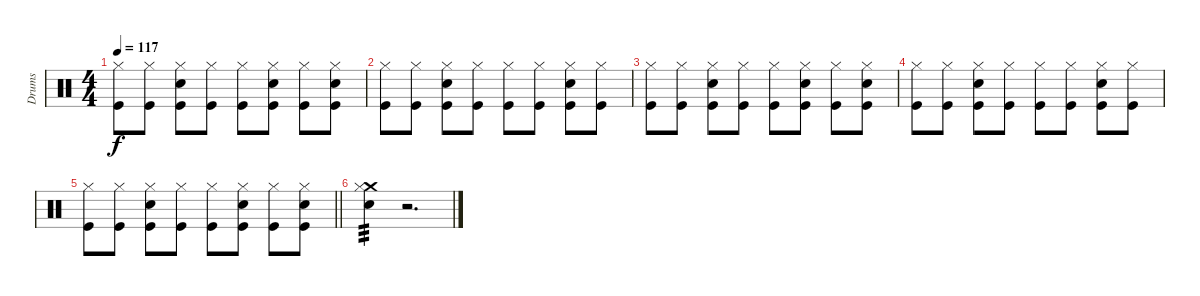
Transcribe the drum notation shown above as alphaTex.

\track ("Drums" "Drums") {instrument percussion}
\staff {score}
\articulation defaults
\ts (4 4)
\tempo 117
\clef neutral
\ks c
("Hi-Hat (closed)" "Kick (hit)").8{dy f} ("Hi-Hat (closed)" "Kick (hit)").8 ("Hi-Hat (closed)" "Electric Snare (hit)" "Kick (hit)").8 ("Hi-Hat (closed)" "Kick (hit)").8 ("Hi-Hat (closed)" "Kick (hit)").8 ("Hi-Hat (closed)" "Electric Snare (hit)" "Kick (hit)").8 ("Hi-Hat (closed)" "Kick (hit)").8 ("Hi-Hat (closed)" "Electric Snare (hit)" "Kick (hit)").8 |
("Hi-Hat (closed)" "Kick (hit)").8 ("Hi-Hat (closed)" "Kick (hit)").8 ("Hi-Hat (closed)" "Electric Snare (hit)" "Kick (hit)").8 ("Hi-Hat (closed)" "Kick (hit)").8 ("Hi-Hat (closed)" "Kick (hit)").8 ("Hi-Hat (closed)" "Kick (hit)").8 ("Hi-Hat (closed)" "Electric Snare (hit)" "Kick (hit)").8 ("Hi-Hat (closed)" "Kick (hit)").8 |
("Hi-Hat (closed)" "Kick (hit)").8 ("Hi-Hat (closed)" "Kick (hit)").8 ("Hi-Hat (closed)" "Electric Snare (hit)" "Kick (hit)").8 ("Hi-Hat (closed)" "Kick (hit)").8 ("Hi-Hat (closed)" "Kick (hit)").8 ("Hi-Hat (closed)" "Electric Snare (hit)" "Kick (hit)").8 ("Hi-Hat (closed)" "Kick (hit)").8 ("Hi-Hat (closed)" "Electric Snare (hit)" "Kick (hit)").8 |
("Hi-Hat (closed)" "Kick (hit)").8 ("Hi-Hat (closed)" "Kick (hit)").8 ("Hi-Hat (closed)" "Electric Snare (hit)" "Kick (hit)").8 ("Hi-Hat (closed)" "Kick (hit)").8 ("Hi-Hat (closed)" "Kick (hit)").8 ("Hi-Hat (closed)" "Kick (hit)").8 ("Hi-Hat (closed)" "Electric Snare (hit)" "Kick (hit)").8 ("Hi-Hat (closed)" "Kick (hit)").8 |
\barLineRight lightlight
("Hi-Hat (closed)" "Kick (hit)").8 ("Hi-Hat (closed)" "Kick (hit)").8 ("Hi-Hat (closed)" "Electric Snare (hit)" "Kick (hit)").8 ("Hi-Hat (closed)" "Kick (hit)").8 ("Hi-Hat (closed)" "Kick (hit)").8 ("Hi-Hat (closed)" "Electric Snare (hit)" "Kick (hit)").8 ("Hi-Hat (closed)" "Kick (hit)").8 ("Hi-Hat (closed)" "Electric Snare (hit)" "Kick (hit)").8 |
("Crash medium (hit)" "Hi-Hat (closed)" "Electric Snare (hit)").4{tp 3} r.2{d}
